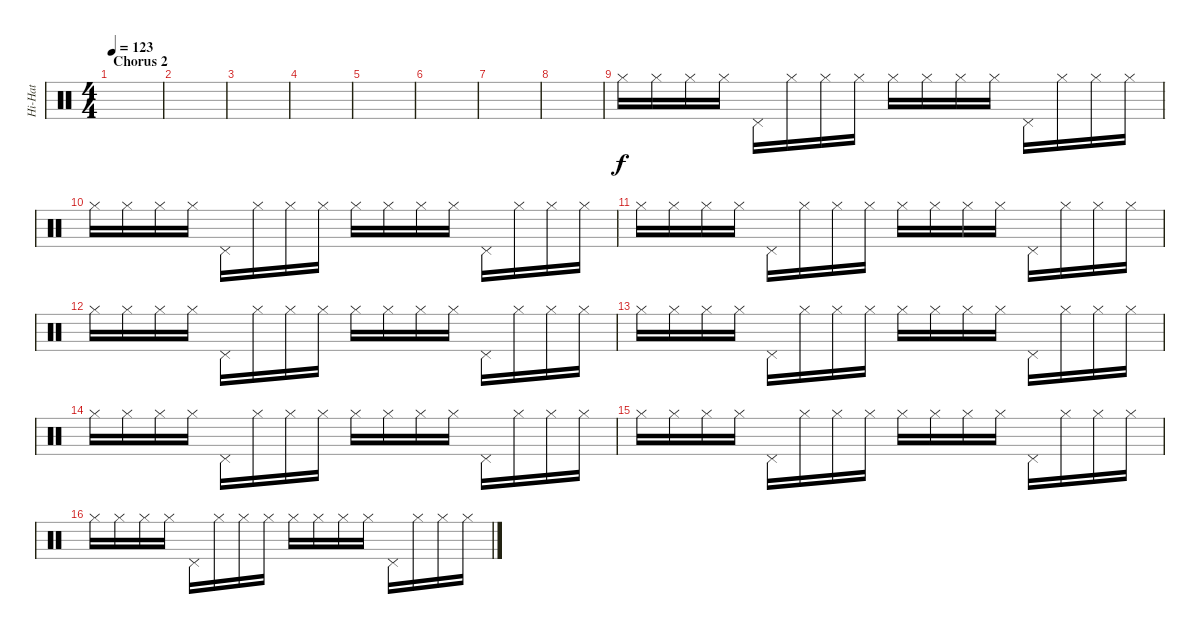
\track ("Hi-Hat" "Hi-Hat") {instrument percussion}
\staff {score}
\articulation defaults
\ts (4 4)
\section ("" "Chorus 2")
\tempo 123
\clef neutral
\ks c
|
|
|
|
|
|
|
|
"Hi-Hat (closed)".16 "Hi-Hat (closed)".16 "Hi-Hat (closed)".16 "Hi-Hat (closed)".16 "Pedal Hi-Hat (hit)".16 "Hi-Hat (closed)".16 "Hi-Hat (closed)".16 "Hi-Hat (closed)".16 "Hi-Hat (closed)".16 "Hi-Hat (closed)".16 "Hi-Hat (closed)".16 "Hi-Hat (closed)".16 "Pedal Hi-Hat (hit)".16 "Hi-Hat (closed)".16 "Hi-Hat (closed)".16 "Hi-Hat (closed)".16 |
"Hi-Hat (closed)".16 "Hi-Hat (closed)".16 "Hi-Hat (closed)".16 "Hi-Hat (closed)".16 "Pedal Hi-Hat (hit)".16 "Hi-Hat (closed)".16 "Hi-Hat (closed)".16 "Hi-Hat (closed)".16 "Hi-Hat (closed)".16 "Hi-Hat (closed)".16 "Hi-Hat (closed)".16 "Hi-Hat (closed)".16 "Pedal Hi-Hat (hit)".16 "Hi-Hat (closed)".16 "Hi-Hat (closed)".16 "Hi-Hat (closed)".16 |
"Hi-Hat (closed)".16 "Hi-Hat (closed)".16 "Hi-Hat (closed)".16 "Hi-Hat (closed)".16 "Pedal Hi-Hat (hit)".16 "Hi-Hat (closed)".16 "Hi-Hat (closed)".16 "Hi-Hat (closed)".16 "Hi-Hat (closed)".16 "Hi-Hat (closed)".16 "Hi-Hat (closed)".16 "Hi-Hat (closed)".16 "Pedal Hi-Hat (hit)".16 "Hi-Hat (closed)".16 "Hi-Hat (closed)".16 "Hi-Hat (closed)".16 |
"Hi-Hat (closed)".16 "Hi-Hat (closed)".16 "Hi-Hat (closed)".16 "Hi-Hat (closed)".16 "Pedal Hi-Hat (hit)".16 "Hi-Hat (closed)".16 "Hi-Hat (closed)".16 "Hi-Hat (closed)".16 "Hi-Hat (closed)".16 "Hi-Hat (closed)".16 "Hi-Hat (closed)".16 "Hi-Hat (closed)".16 "Pedal Hi-Hat (hit)".16 "Hi-Hat (closed)".16 "Hi-Hat (closed)".16 "Hi-Hat (closed)".16 |
"Hi-Hat (closed)".16 "Hi-Hat (closed)".16 "Hi-Hat (closed)".16 "Hi-Hat (closed)".16 "Pedal Hi-Hat (hit)".16 "Hi-Hat (closed)".16 "Hi-Hat (closed)".16 "Hi-Hat (closed)".16 "Hi-Hat (closed)".16 "Hi-Hat (closed)".16 "Hi-Hat (closed)".16 "Hi-Hat (closed)".16 "Pedal Hi-Hat (hit)".16 "Hi-Hat (closed)".16 "Hi-Hat (closed)".16 "Hi-Hat (closed)".16 |
"Hi-Hat (closed)".16 "Hi-Hat (closed)".16 "Hi-Hat (closed)".16 "Hi-Hat (closed)".16 "Pedal Hi-Hat (hit)".16 "Hi-Hat (closed)".16 "Hi-Hat (closed)".16 "Hi-Hat (closed)".16 "Hi-Hat (closed)".16 "Hi-Hat (closed)".16 "Hi-Hat (closed)".16 "Hi-Hat (closed)".16 "Pedal Hi-Hat (hit)".16 "Hi-Hat (closed)".16 "Hi-Hat (closed)".16 "Hi-Hat (closed)".16 |
"Hi-Hat (closed)".16 "Hi-Hat (closed)".16 "Hi-Hat (closed)".16 "Hi-Hat (closed)".16 "Pedal Hi-Hat (hit)".16 "Hi-Hat (closed)".16 "Hi-Hat (closed)".16 "Hi-Hat (closed)".16 "Hi-Hat (closed)".16 "Hi-Hat (closed)".16 "Hi-Hat (closed)".16 "Hi-Hat (closed)".16 "Pedal Hi-Hat (hit)".16 "Hi-Hat (closed)".16 "Hi-Hat (closed)".16 "Hi-Hat (closed)".16 |
"Hi-Hat (closed)".16 "Hi-Hat (closed)".16 "Hi-Hat (closed)".16 "Hi-Hat (closed)".16 "Pedal Hi-Hat (hit)".16 "Hi-Hat (closed)".16 "Hi-Hat (closed)".16 "Hi-Hat (closed)".16 "Hi-Hat (closed)".16 "Hi-Hat (closed)".16 "Hi-Hat (closed)".16 "Hi-Hat (closed)".16 "Pedal Hi-Hat (hit)".16 "Hi-Hat (closed)".16 "Hi-Hat (closed)".16 "Hi-Hat (closed)".16
